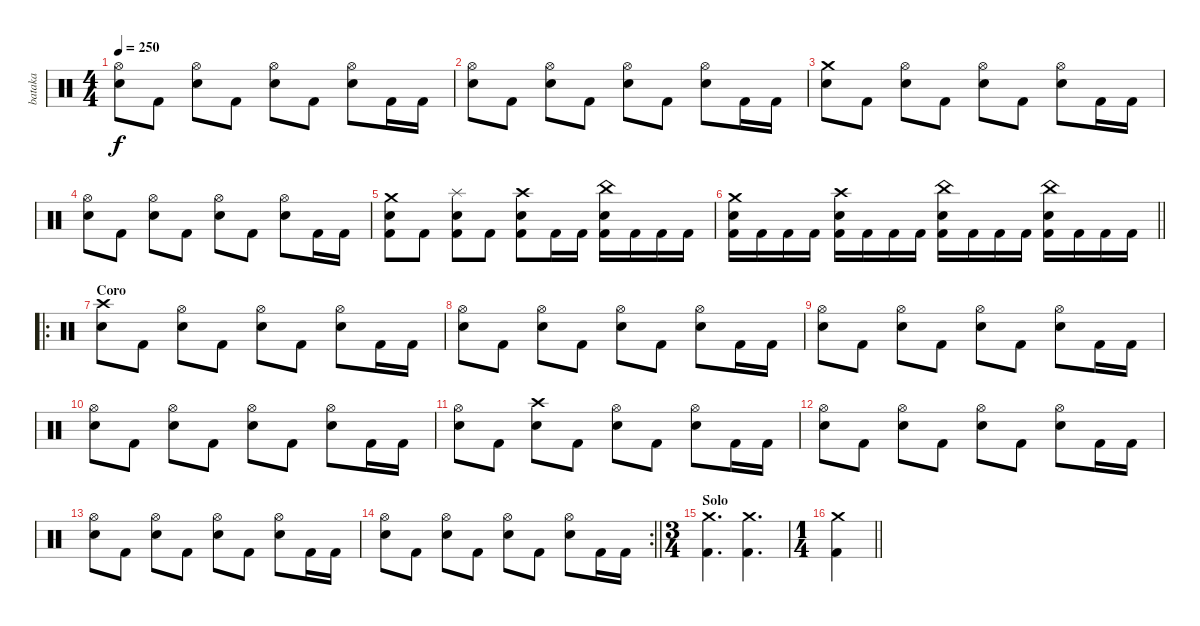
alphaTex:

\track ("bataka" "bataka") {instrument percussion}
\staff {score}
\articulation defaults
\ts (4 4)
\tempo 250
\clef neutral
\ks c
("Hi-Hat (open)" "Electric Snare (hit)").8{dy f} "Kick (hit) 2".8 ("Hi-Hat (open)" "Electric Snare (hit)").8 "Kick (hit) 2".8 ("Hi-Hat (open)" "Electric Snare (hit)").8 "Kick (hit) 2".8 ("Hi-Hat (open)" "Electric Snare (hit)").8 "Kick (hit) 2".16 "Kick (hit) 2".16 |
("Hi-Hat (open)" "Electric Snare (hit)").8 "Kick (hit) 2".8 ("Hi-Hat (open)" "Electric Snare (hit)").8 "Kick (hit) 2".8 ("Hi-Hat (open)" "Electric Snare (hit)").8 "Kick (hit) 2".8 ("Hi-Hat (open)" "Electric Snare (hit)").8 "Kick (hit) 2".16 "Kick (hit) 2".16 |
("Crash medium (hit)" "Electric Snare (hit)").8 "Kick (hit) 2".8 ("Hi-Hat (open)" "Electric Snare (hit)").8 "Kick (hit) 2".8 ("Hi-Hat (open)" "Electric Snare (hit)").8 "Kick (hit) 2".8 ("Hi-Hat (open)" "Electric Snare (hit)").8 "Kick (hit) 2".16 "Kick (hit) 2".16 |
("Hi-Hat (open)" "Electric Snare (hit)").8 "Kick (hit) 2".8 ("Hi-Hat (open)" "Electric Snare (hit)").8 "Kick (hit) 2".8 ("Hi-Hat (open)" "Electric Snare (hit)").8 "Kick (hit) 2".8 ("Hi-Hat (open)" "Electric Snare (hit)").8 "Kick (hit) 2".16 "Kick (hit) 2".16 |
("Crash medium (hit)" "Electric Snare (hit)" "Kick (hit) 2").8 "Kick (hit) 2".8 ("Splash (hit)" "Electric Snare (hit)" "Kick (hit) 2").8 "Kick (hit) 2".8 ("Crash high (hit)" "Electric Snare (hit)" "Kick (hit) 2").8 "Kick (hit) 2".16 "Kick (hit) 2".16 ("China (hit)" "Electric Snare (hit)" "Kick (hit) 2").16 "Kick (hit) 2".16 "Kick (hit) 2".16 "Kick (hit) 2".16 |
\barLineRight lightlight
("Crash medium (hit)" "Electric Snare (hit)" "Kick (hit) 2").16 "Kick (hit) 2".16 "Kick (hit) 2".16 "Kick (hit) 2".16 ("Crash high (hit)" "Electric Snare (hit)" "Kick (hit) 2").16 "Kick (hit) 2".16 "Kick (hit) 2".16 "Kick (hit) 2".16 ("China (hit)" "Electric Snare (hit)" "Kick (hit) 2").16 "Kick (hit) 2".16 "Kick (hit) 2".16 "Kick (hit) 2".16 ("China (hit)" "Electric Snare (hit)" "Kick (hit) 2").16 "Kick (hit) 2".16 "Kick (hit) 2".16 "Kick (hit) 2".16 |
\ro
\section ("" "Coro")
("Crash high (hit)" "Electric Snare (hit)").8 "Kick (hit) 2".8 ("Hi-Hat (open)" "Electric Snare (hit)").8 "Kick (hit) 2".8 ("Hi-Hat (open)" "Electric Snare (hit)").8 "Kick (hit) 2".8 ("Hi-Hat (open)" "Electric Snare (hit)").8 "Kick (hit) 2".16 "Kick (hit) 2".16 |
("Hi-Hat (open)" "Electric Snare (hit)").8 "Kick (hit) 2".8 ("Hi-Hat (open)" "Electric Snare (hit)").8 "Kick (hit) 2".8 ("Hi-Hat (open)" "Electric Snare (hit)").8 "Kick (hit) 2".8 ("Hi-Hat (open)" "Electric Snare (hit)").8 "Kick (hit) 2".16 "Kick (hit) 2".16 |
("Hi-Hat (open)" "Electric Snare (hit)").8 "Kick (hit) 2".8 ("Hi-Hat (open)" "Electric Snare (hit)").8 "Kick (hit) 2".8 ("Hi-Hat (open)" "Electric Snare (hit)").8 "Kick (hit) 2".8 ("Hi-Hat (open)" "Electric Snare (hit)").8 "Kick (hit) 2".16 "Kick (hit) 2".16 |
("Hi-Hat (open)" "Electric Snare (hit)").8 "Kick (hit) 2".8 ("Hi-Hat (open)" "Electric Snare (hit)").8 "Kick (hit) 2".8 ("Hi-Hat (open)" "Electric Snare (hit)").8 "Kick (hit) 2".8 ("Hi-Hat (open)" "Electric Snare (hit)").8 "Kick (hit) 2".16 "Kick (hit) 2".16 |
("Hi-Hat (open)" "Electric Snare (hit)").8 "Kick (hit) 2".8 ("Crash high (hit)" "Electric Snare (hit)").8 "Kick (hit) 2".8 ("Hi-Hat (open)" "Electric Snare (hit)").8 "Kick (hit) 2".8 ("Hi-Hat (open)" "Electric Snare (hit)").8 "Kick (hit) 2".16 "Kick (hit) 2".16 |
("Hi-Hat (open)" "Electric Snare (hit)").8 "Kick (hit) 2".8 ("Hi-Hat (open)" "Electric Snare (hit)").8 "Kick (hit) 2".8 ("Hi-Hat (open)" "Electric Snare (hit)").8 "Kick (hit) 2".8 ("Hi-Hat (open)" "Electric Snare (hit)").8 "Kick (hit) 2".16 "Kick (hit) 2".16 |
("Hi-Hat (open)" "Electric Snare (hit)").8 "Kick (hit) 2".8 ("Hi-Hat (open)" "Electric Snare (hit)").8 "Kick (hit) 2".8 ("Hi-Hat (open)" "Electric Snare (hit)").8 "Kick (hit) 2".8 ("Hi-Hat (open)" "Electric Snare (hit)").8 "Kick (hit) 2".16 "Kick (hit) 2".16 |
\rc 2
\barLineRight lightlight
("Hi-Hat (open)" "Electric Snare (hit)").8 "Kick (hit) 2".8 ("Hi-Hat (open)" "Electric Snare (hit)").8 "Kick (hit) 2".8 ("Hi-Hat (open)" "Electric Snare (hit)").8 "Kick (hit) 2".8 ("Hi-Hat (open)" "Electric Snare (hit)").8 "Kick (hit) 2".16 "Kick (hit) 2".16 |
\ts (3 4)
\section ("" "Solo")
("Crash medium (hit)" "Kick (hit) 2").4{d} ("Crash medium (hit)" "Kick (hit) 2").4{d} |
\ts (1 4)
\barLineRight lightlight
("Crash medium (hit)" "Kick (hit) 2").4
